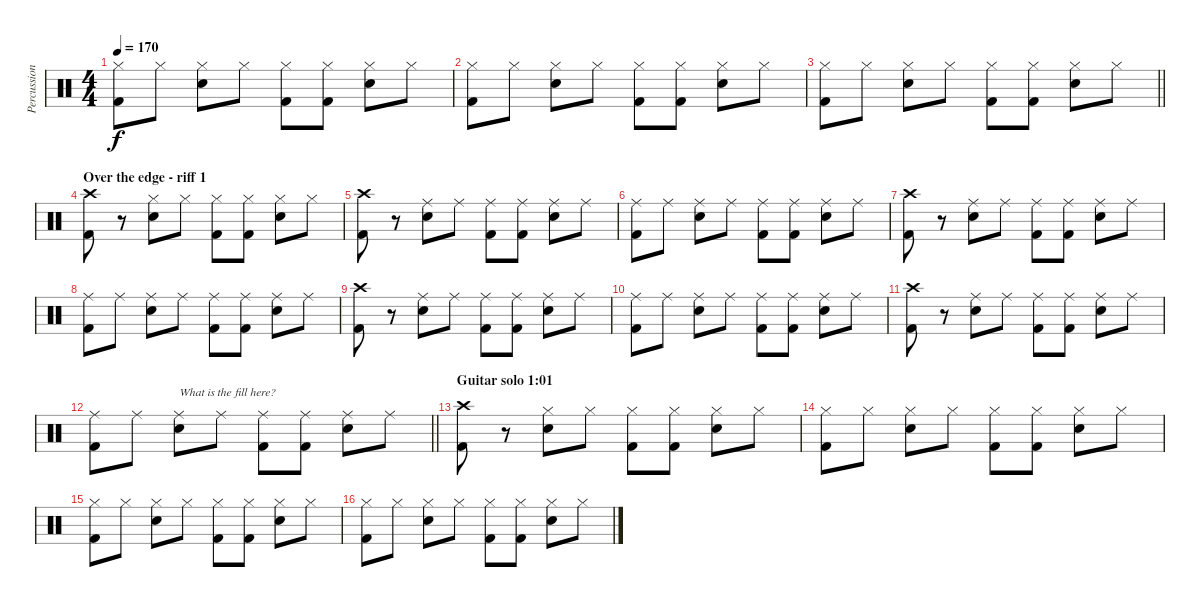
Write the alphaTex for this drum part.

\track ("Percussion" "Percussion") {instrument percussion}
\staff {score}
\articulation defaults
\ts (4 4)
\tempo 170
\clef neutral
\ks c
("Hi-Hat (closed)" "Kick (hit) 2").8{dy f} "Hi-Hat (closed)".8 ("Hi-Hat (closed)" "Snare (hit) 2").8 "Hi-Hat (closed)".8 ("Hi-Hat (closed)" "Kick (hit) 2").8 ("Hi-Hat (closed)" "Kick (hit) 2").8 ("Hi-Hat (closed)" "Snare (hit) 2").8 "Hi-Hat (closed)".8 |
("Hi-Hat (closed)" "Kick (hit) 2").8 "Hi-Hat (closed)".8 ("Hi-Hat (closed)" "Snare (hit) 2").8 "Hi-Hat (closed)".8 ("Hi-Hat (closed)" "Kick (hit) 2").8 ("Hi-Hat (closed)" "Kick (hit) 2").8 ("Hi-Hat (closed)" "Snare (hit) 2").8 "Hi-Hat (closed)".8 |
\barLineRight lightlight
("Hi-Hat (closed)" "Kick (hit) 2").8 "Hi-Hat (closed)".8 ("Hi-Hat (closed)" "Snare (hit) 2").8 "Hi-Hat (closed)".8 ("Hi-Hat (closed)" "Kick (hit) 2").8 ("Hi-Hat (closed)" "Kick (hit) 2").8 ("Hi-Hat (closed)" "Snare (hit) 2").8 "Hi-Hat (closed)".8 |
\section ("" "Over the edge - riff 1")
("Crash high (hit)" "Kick (hit) 2").8 r.8 ("Hi-Hat (closed)" "Snare (hit) 2").8 "Hi-Hat (closed)".8 ("Hi-Hat (closed)" "Kick (hit) 2").8 ("Hi-Hat (closed)" "Kick (hit) 2").8 ("Hi-Hat (closed)" "Snare (hit) 2").8 "Hi-Hat (closed)".8 |
("Crash high (hit)" "Kick (hit) 2").8 r.8 ("Ride (middle)" "Snare (hit) 2").8 "Ride (middle)".8 ("Ride (middle)" "Kick (hit) 2").8 ("Ride (middle)" "Kick (hit) 2").8 ("Ride (middle)" "Snare (hit) 2").8 "Ride (middle)".8 |
("Ride (middle)" "Kick (hit) 2").8 "Ride (middle)".8 ("Ride (middle)" "Snare (hit) 2").8 "Ride (middle)".8 ("Ride (middle)" "Kick (hit) 2").8 ("Ride (middle)" "Kick (hit) 2").8 ("Ride (middle)" "Snare (hit) 2").8 "Ride (middle)".8 |
("Crash high (hit)" "Kick (hit) 2").8 r.8 ("Ride (middle)" "Snare (hit) 2").8 "Ride (middle)".8 ("Ride (middle)" "Kick (hit) 2").8 ("Ride (middle)" "Kick (hit) 2").8 ("Ride (middle)" "Snare (hit) 2").8 "Ride (middle)".8 |
("Ride (middle)" "Kick (hit) 2").8 "Ride (middle)".8 ("Ride (middle)" "Snare (hit) 2").8 "Ride (middle)".8 ("Ride (middle)" "Kick (hit) 2").8 ("Ride (middle)" "Kick (hit) 2").8 ("Ride (middle)" "Snare (hit) 2").8 "Ride (middle)".8 |
("Crash high (hit)" "Kick (hit) 2").8 r.8 ("Ride (middle)" "Snare (hit) 2").8 "Ride (middle)".8 ("Ride (middle)" "Kick (hit) 2").8 ("Ride (middle)" "Kick (hit) 2").8 ("Ride (middle)" "Snare (hit) 2").8 "Ride (middle)".8 |
("Ride (middle)" "Kick (hit) 2").8 "Ride (middle)".8 ("Ride (middle)" "Snare (hit) 2").8 "Ride (middle)".8 ("Ride (middle)" "Kick (hit) 2").8 ("Ride (middle)" "Kick (hit) 2").8 ("Ride (middle)" "Snare (hit) 2").8 "Ride (middle)".8 |
("Crash high (hit)" "Kick (hit) 2").8 r.8 ("Ride (middle)" "Snare (hit) 2").8 "Ride (middle)".8 ("Ride (middle)" "Kick (hit) 2").8 ("Ride (middle)" "Kick (hit) 2").8 ("Ride (middle)" "Snare (hit) 2").8 "Ride (middle)".8 |
\barLineRight lightlight
("Ride (middle)" "Kick (hit) 2").8 "Ride (middle)".8 ("Ride (middle)" "Snare (hit) 2").8{txt "What is the fill here?"} "Ride (middle)".8 ("Ride (middle)" "Kick (hit) 2").8 ("Ride (middle)" "Kick (hit) 2").8 ("Ride (middle)" "Snare (hit) 2").8 "Ride (middle)".8 |
\section ("" "Guitar solo 1:01")
("Crash high (hit)" "Kick (hit) 2").8 r.8 ("Hi-Hat (closed)" "Snare (hit) 2").8 "Hi-Hat (closed)".8 ("Hi-Hat (closed)" "Kick (hit) 2").8 ("Hi-Hat (closed)" "Kick (hit) 2").8 ("Hi-Hat (closed)" "Snare (hit) 2").8 "Hi-Hat (closed)".8 |
("Hi-Hat (closed)" "Kick (hit) 2").8 "Hi-Hat (closed)".8 ("Hi-Hat (closed)" "Snare (hit) 2").8 "Hi-Hat (closed)".8 ("Hi-Hat (closed)" "Kick (hit) 2").8 ("Hi-Hat (closed)" "Kick (hit) 2").8 ("Hi-Hat (closed)" "Snare (hit) 2").8 "Hi-Hat (closed)".8 |
("Hi-Hat (closed)" "Kick (hit) 2").8 "Hi-Hat (closed)".8 ("Hi-Hat (closed)" "Snare (hit) 2").8 "Hi-Hat (closed)".8 ("Hi-Hat (closed)" "Kick (hit) 2").8 ("Hi-Hat (closed)" "Kick (hit) 2").8 ("Hi-Hat (closed)" "Snare (hit) 2").8 "Hi-Hat (closed)".8 |
("Hi-Hat (closed)" "Kick (hit) 2").8 "Hi-Hat (closed)".8 ("Hi-Hat (closed)" "Snare (hit) 2").8 "Hi-Hat (closed)".8 ("Hi-Hat (closed)" "Kick (hit) 2").8 ("Hi-Hat (closed)" "Kick (hit) 2").8 ("Hi-Hat (closed)" "Snare (hit) 2").8 "Hi-Hat (closed)".8
